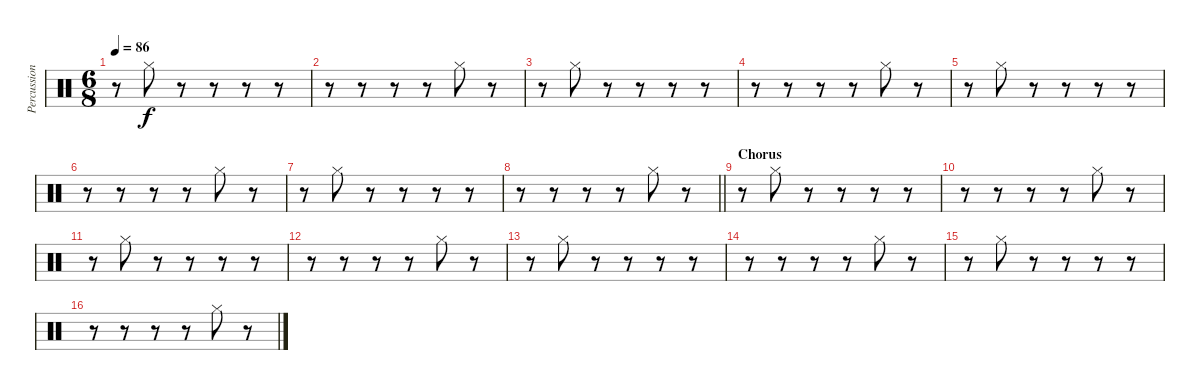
\track ("Percussion" "Percussion") {instrument percussion}
\staff {score}
\articulation defaults
\ts (6 8)
\tempo 86
\clef neutral
\ks c
r.8{dy f} "Hi-Hat (closed)".8 r.8 r.8 r.8 r.8 |
r.8 r.8 r.8 r.8 "Hi-Hat (closed)".8 r.8 |
r.8 "Hi-Hat (closed)".8 r.8 r.8 r.8 r.8 |
r.8 r.8 r.8 r.8 "Hi-Hat (closed)".8 r.8 |
r.8 "Hi-Hat (closed)".8 r.8 r.8 r.8 r.8 |
r.8 r.8 r.8 r.8 "Hi-Hat (closed)".8 r.8 |
r.8 "Hi-Hat (closed)".8 r.8 r.8 r.8 r.8 |
\barLineRight lightlight
r.8 r.8 r.8 r.8 "Hi-Hat (closed)".8 r.8 |
\section ("" "Chorus")
r.8 "Hi-Hat (closed)".8 r.8 r.8 r.8 r.8 |
r.8 r.8 r.8 r.8 "Hi-Hat (closed)".8 r.8 |
r.8 "Hi-Hat (closed)".8 r.8 r.8 r.8 r.8 |
r.8 r.8 r.8 r.8 "Hi-Hat (closed)".8 r.8 |
r.8 "Hi-Hat (closed)".8 r.8 r.8 r.8 r.8 |
r.8 r.8 r.8 r.8 "Hi-Hat (closed)".8 r.8 |
r.8 "Hi-Hat (closed)".8 r.8 r.8 r.8 r.8 |
r.8 r.8 r.8 r.8 "Hi-Hat (closed)".8 r.8
